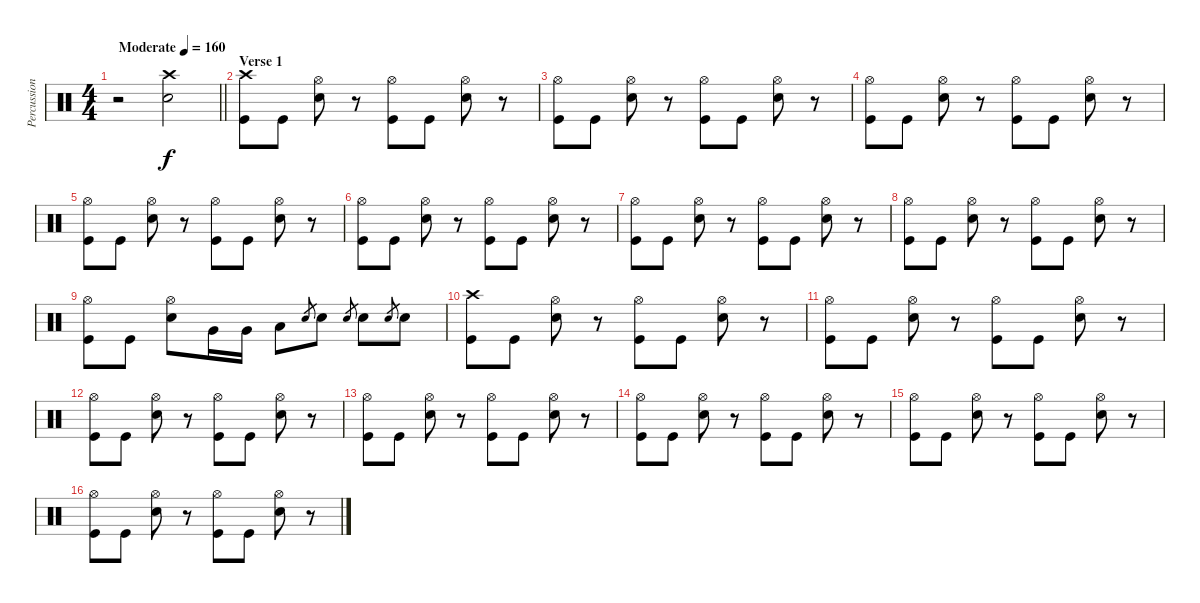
\track ("Percussion" "Percussion") {instrument percussion}
\staff {score}
\articulation defaults
\ts (4 4)
\tempo (160 "Moderate")
\clef neutral
\barLineRight lightlight
\ks c
r.2{dy f} ("Crash high (hit)" "Electric Snare (hit)").2 |
\section ("" "Verse 1")
("Crash high (hit)" "Kick (hit)").8 "Kick (hit)".8 ("Hi-Hat (open)" "Electric Snare (hit)").8 r.8 ("Hi-Hat (open)" "Kick (hit)").8 "Kick (hit)".8 ("Hi-Hat (open)" "Electric Snare (hit)").8 r.8 |
("Hi-Hat (open)" "Kick (hit)").8 "Kick (hit)".8 ("Hi-Hat (open)" "Electric Snare (hit)").8 r.8 ("Hi-Hat (open)" "Kick (hit)").8 "Kick (hit)".8 ("Hi-Hat (open)" "Electric Snare (hit)").8 r.8 |
("Hi-Hat (open)" "Kick (hit)").8 "Kick (hit)".8 ("Hi-Hat (open)" "Electric Snare (hit)").8 r.8 ("Hi-Hat (open)" "Kick (hit)").8 "Kick (hit)".8 ("Hi-Hat (open)" "Electric Snare (hit)").8 r.8 |
("Hi-Hat (open)" "Kick (hit)").8 "Kick (hit)".8 ("Hi-Hat (open)" "Electric Snare (hit)").8 r.8 ("Hi-Hat (open)" "Kick (hit)").8 "Kick (hit)".8 ("Hi-Hat (open)" "Electric Snare (hit)").8 r.8 |
("Hi-Hat (open)" "Kick (hit)").8 "Kick (hit)".8 ("Hi-Hat (open)" "Electric Snare (hit)").8 r.8 ("Hi-Hat (open)" "Kick (hit)").8 "Kick (hit)".8 ("Hi-Hat (open)" "Electric Snare (hit)").8 r.8 |
("Hi-Hat (open)" "Kick (hit)").8 "Kick (hit)".8 ("Hi-Hat (open)" "Electric Snare (hit)").8 r.8 ("Hi-Hat (open)" "Kick (hit)").8 "Kick (hit)".8 ("Hi-Hat (open)" "Electric Snare (hit)").8 r.8 |
("Hi-Hat (open)" "Kick (hit)").8 "Kick (hit)".8 ("Hi-Hat (open)" "Electric Snare (hit)").8 r.8 ("Hi-Hat (open)" "Kick (hit)").8 "Kick (hit)".8 ("Hi-Hat (open)" "Electric Snare (hit)").8 r.8 |
("Hi-Hat (open)" "Kick (hit)").8 "Kick (hit)".8 ("Hi-Hat (open)" "Electric Snare (hit)").8 "Very Low Tom (hit)".16 "Very Low Tom (hit)".16 "Low Floor Tom (hit)".8 "Electric Snare (hit)".8{gr} "Electric Snare (hit)".8 "Electric Snare (hit)".8{gr} "Electric Snare (hit)".8 "Electric Snare (hit)".8{gr} "Electric Snare (hit)".8 |
("Crash high (hit)" "Kick (hit)").8 "Kick (hit)".8 ("Hi-Hat (open)" "Electric Snare (hit)").8 r.8 ("Hi-Hat (open)" "Kick (hit)").8 "Kick (hit)".8 ("Hi-Hat (open)" "Electric Snare (hit)").8 r.8 |
("Hi-Hat (open)" "Kick (hit)").8 "Kick (hit)".8 ("Hi-Hat (open)" "Electric Snare (hit)").8 r.8 ("Hi-Hat (open)" "Kick (hit)").8 "Kick (hit)".8 ("Hi-Hat (open)" "Electric Snare (hit)").8 r.8 |
("Hi-Hat (open)" "Kick (hit)").8 "Kick (hit)".8 ("Hi-Hat (open)" "Electric Snare (hit)").8 r.8 ("Hi-Hat (open)" "Kick (hit)").8 "Kick (hit)".8 ("Hi-Hat (open)" "Electric Snare (hit)").8 r.8 |
("Hi-Hat (open)" "Kick (hit)").8 "Kick (hit)".8 ("Hi-Hat (open)" "Electric Snare (hit)").8 r.8 ("Hi-Hat (open)" "Kick (hit)").8 "Kick (hit)".8 ("Hi-Hat (open)" "Electric Snare (hit)").8 r.8 |
("Hi-Hat (open)" "Kick (hit)").8 "Kick (hit)".8 ("Hi-Hat (open)" "Electric Snare (hit)").8 r.8 ("Hi-Hat (open)" "Kick (hit)").8 "Kick (hit)".8 ("Hi-Hat (open)" "Electric Snare (hit)").8 r.8 |
("Hi-Hat (open)" "Kick (hit)").8 "Kick (hit)".8 ("Hi-Hat (open)" "Electric Snare (hit)").8 r.8 ("Hi-Hat (open)" "Kick (hit)").8 "Kick (hit)".8 ("Hi-Hat (open)" "Electric Snare (hit)").8 r.8 |
("Hi-Hat (open)" "Kick (hit)").8 "Kick (hit)".8 ("Hi-Hat (open)" "Electric Snare (hit)").8 r.8 ("Hi-Hat (open)" "Kick (hit)").8 "Kick (hit)".8 ("Hi-Hat (open)" "Electric Snare (hit)").8 r.8
